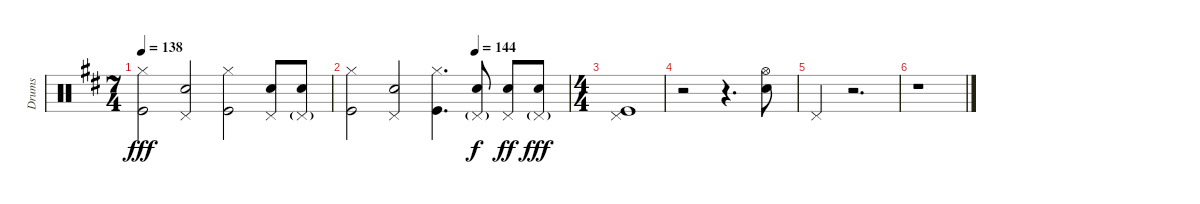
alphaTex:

\track ("Drums" "Drums") {instrument percussion}
\staff {score}
\articulation defaults
\ts (7 4)
\tempo 138
\clef neutral
\ks d
("Hi-Hat (closed)" "Kick (hit)").2{dy fff} ("Pedal Hi-Hat (hit)" "Electric Snare (hit)").2 ("Hi-Hat (closed)" "Kick (hit)").2 ("Pedal Hi-Hat (hit)" "Electric Snare (hit)").8 ("Pedal Hi-Hat (hit)"{g} "Electric Snare (hit)").8 |
\tempo (144 0.5714285714285714)
("Hi-Hat (closed)" "Kick (hit)").2 ("Pedal Hi-Hat (hit)" "Electric Snare (hit)").2 ("Hi-Hat (closed)" "Kick (hit)").4{d} ("Pedal Hi-Hat (hit)"{g} "Electric Snare (hit)").8{dy f} ("Pedal Hi-Hat (hit)" "Electric Snare (hit)").8{dy ff} ("Pedal Hi-Hat (hit)"{g} "Electric Snare (hit)").8{dy fff} |
\ts (4 4)
("Pedal Hi-Hat (hit)" "Kick (hit)").1 |
r.2 r.4{d} ("Hi-Hat (open)" "Electric Snare (hit)").8 |
"Pedal Hi-Hat (hit)".4 r.2{d} |
r.1
